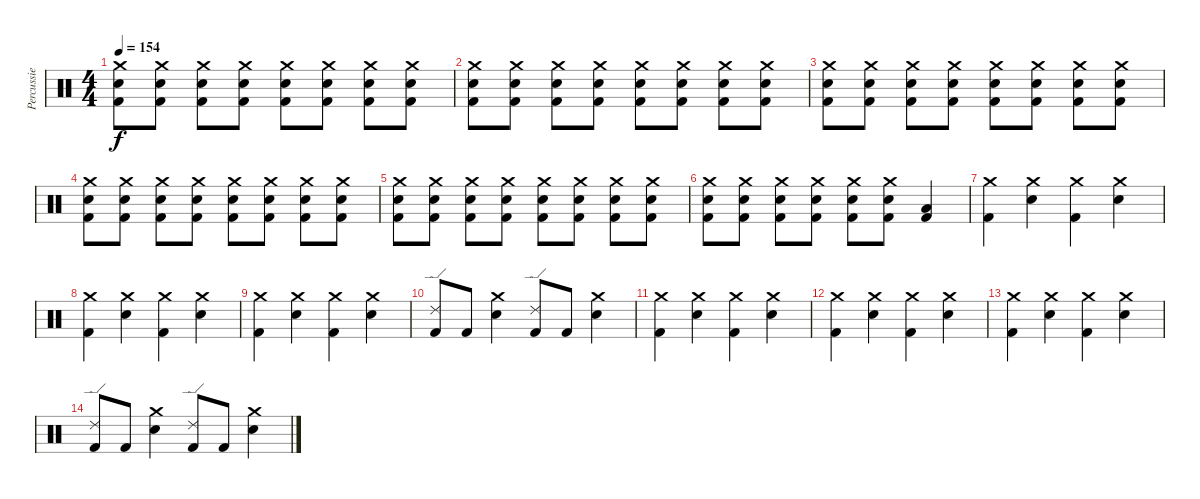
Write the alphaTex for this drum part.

\track ("Percussie" "Percussie") {instrument percussion}
\staff {score}
\articulation defaults
\ts (4 4)
\tempo 154
\clef neutral
\ks c
("Crash medium (hit)" "Snare (hit) 2" "Kick (hit) 2").8{dy f} ("Crash medium (hit)" "Snare (hit) 2" "Kick (hit) 2").8 ("Crash medium (hit)" "Snare (hit) 2" "Kick (hit) 2").8 ("Crash medium (hit)" "Snare (hit) 2" "Kick (hit) 2").8 ("Crash medium (hit)" "Snare (hit) 2" "Kick (hit) 2").8 ("Crash medium (hit)" "Snare (hit) 2" "Kick (hit) 2").8 ("Crash medium (hit)" "Snare (hit) 2" "Kick (hit) 2").8 ("Crash medium (hit)" "Snare (hit) 2" "Kick (hit) 2").8 |
("Crash medium (hit)" "Snare (hit) 2" "Kick (hit) 2").8 ("Crash medium (hit)" "Snare (hit) 2" "Kick (hit) 2").8 ("Crash medium (hit)" "Snare (hit) 2" "Kick (hit) 2").8 ("Crash medium (hit)" "Snare (hit) 2" "Kick (hit) 2").8 ("Crash medium (hit)" "Snare (hit) 2" "Kick (hit) 2").8 ("Crash medium (hit)" "Snare (hit) 2" "Kick (hit) 2").8 ("Crash medium (hit)" "Snare (hit) 2" "Kick (hit) 2").8 ("Crash medium (hit)" "Snare (hit) 2" "Kick (hit) 2").8 |
("Crash medium (hit)" "Snare (hit) 2" "Kick (hit) 2").8 ("Crash medium (hit)" "Snare (hit) 2" "Kick (hit) 2").8 ("Crash medium (hit)" "Snare (hit) 2" "Kick (hit) 2").8 ("Crash medium (hit)" "Snare (hit) 2" "Kick (hit) 2").8 ("Crash medium (hit)" "Snare (hit) 2" "Kick (hit) 2").8 ("Crash medium (hit)" "Snare (hit) 2" "Kick (hit) 2").8 ("Crash medium (hit)" "Snare (hit) 2" "Kick (hit) 2").8 ("Crash medium (hit)" "Snare (hit) 2" "Kick (hit) 2").8 |
("Crash medium (hit)" "Snare (hit) 2" "Kick (hit) 2").8 ("Crash medium (hit)" "Snare (hit) 2" "Kick (hit) 2").8 ("Crash medium (hit)" "Snare (hit) 2" "Kick (hit) 2").8 ("Crash medium (hit)" "Snare (hit) 2" "Kick (hit) 2").8 ("Crash medium (hit)" "Snare (hit) 2" "Kick (hit) 2").8 ("Crash medium (hit)" "Snare (hit) 2" "Kick (hit) 2").8 ("Crash medium (hit)" "Snare (hit) 2" "Kick (hit) 2").8 ("Crash medium (hit)" "Snare (hit) 2" "Kick (hit) 2").8 |
("Crash medium (hit)" "Snare (hit) 2" "Kick (hit) 2").8 ("Crash medium (hit)" "Snare (hit) 2" "Kick (hit) 2").8 ("Crash medium (hit)" "Snare (hit) 2" "Kick (hit) 2").8 ("Crash medium (hit)" "Snare (hit) 2" "Kick (hit) 2").8 ("Crash medium (hit)" "Snare (hit) 2" "Kick (hit) 2").8 ("Crash medium (hit)" "Snare (hit) 2" "Kick (hit) 2").8 ("Crash medium (hit)" "Snare (hit) 2" "Kick (hit) 2").8 ("Crash medium (hit)" "Snare (hit) 2" "Kick (hit) 2").8 |
("Crash medium (hit)" "Snare (hit) 2" "Kick (hit) 2").8 ("Crash medium (hit)" "Snare (hit) 2" "Kick (hit) 2").8 ("Crash medium (hit)" "Snare (hit) 2" "Kick (hit) 2").8 ("Crash medium (hit)" "Snare (hit) 2" "Kick (hit) 2").8 ("Crash medium (hit)" "Snare (hit) 2" "Kick (hit) 2").8 ("Crash medium (hit)" "Snare (hit) 2" "Kick (hit) 2").8 ("Low Tom (hit)" "Kick (hit) 2").4 |
("Crash medium (hit)" "Kick (hit) 2").4 ("Crash medium (hit)" "Snare (hit) 2").4 ("Crash medium (hit)" "Kick (hit) 2").4 ("Crash medium (hit)" "Snare (hit) 2").4 |
("Crash medium (hit)" "Kick (hit) 2").4 ("Crash medium (hit)" "Snare (hit) 2").4 ("Crash medium (hit)" "Kick (hit) 2").4 ("Crash medium (hit)" "Snare (hit) 2").4 |
("Crash medium (hit)" "Kick (hit) 2").4 ("Crash medium (hit)" "Snare (hit) 2").4 ("Crash medium (hit)" "Kick (hit) 2").4 ("Crash medium (hit)" "Snare (hit) 2").4 |
("Ride (edge) 2" "Kick (hit) 2").8 "Kick (hit) 2".8 ("Crash medium (hit)" "Snare (hit) 2").4 ("Ride (edge) 2" "Kick (hit) 2").8 "Kick (hit) 2".8 ("Crash medium (hit)" "Snare (hit) 2").4 |
("Crash medium (hit)" "Kick (hit) 2").4 ("Crash medium (hit)" "Snare (hit) 2").4 ("Crash medium (hit)" "Kick (hit) 2").4 ("Crash medium (hit)" "Snare (hit) 2").4 |
("Crash medium (hit)" "Kick (hit) 2").4 ("Crash medium (hit)" "Snare (hit) 2").4 ("Crash medium (hit)" "Kick (hit) 2").4 ("Crash medium (hit)" "Snare (hit) 2").4 |
("Crash medium (hit)" "Kick (hit) 2").4 ("Crash medium (hit)" "Snare (hit) 2").4 ("Crash medium (hit)" "Kick (hit) 2").4 ("Crash medium (hit)" "Snare (hit) 2").4 |
("Ride (edge) 2" "Kick (hit) 2").8 "Kick (hit) 2".8 ("Crash medium (hit)" "Snare (hit) 2").4 ("Ride (edge) 2" "Kick (hit) 2").8 "Kick (hit) 2".8 ("Crash medium (hit)" "Snare (hit) 2").4
